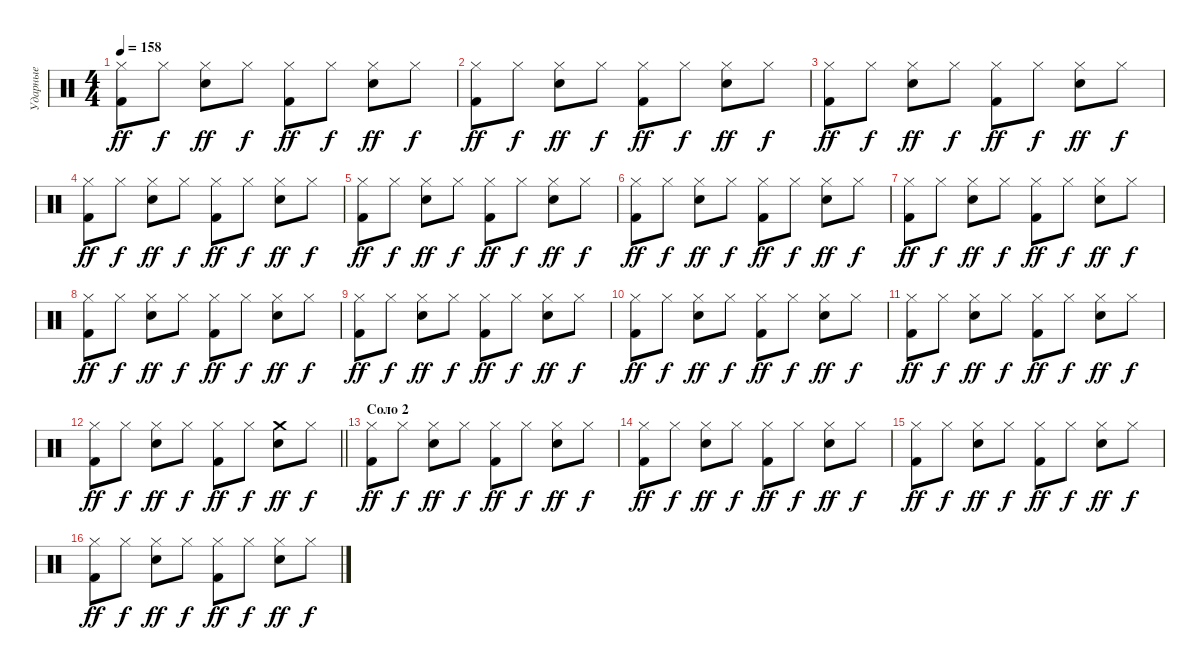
\track ("Ударные" "Ударные") {instrument percussion}
\staff {score}
\articulation defaults
\ts (4 4)
\tempo 158
\clef neutral
\ks c
("Hi-Hat (closed)" "Kick (hit) 2").8{dy ff} "Hi-Hat (closed)".8{dy f} ("Hi-Hat (closed)" "Electric Snare (hit)").8{dy ff} "Hi-Hat (closed)".8{dy f} ("Hi-Hat (closed)" "Kick (hit) 2").8{dy ff} "Hi-Hat (closed)".8{dy f} ("Hi-Hat (closed)" "Electric Snare (hit)").8{dy ff} "Hi-Hat (closed)".8{dy f} |
("Hi-Hat (closed)" "Kick (hit) 2").8{dy ff} "Hi-Hat (closed)".8{dy f} ("Hi-Hat (closed)" "Electric Snare (hit)").8{dy ff} "Hi-Hat (closed)".8{dy f} ("Hi-Hat (closed)" "Kick (hit) 2").8{dy ff} "Hi-Hat (closed)".8{dy f} ("Hi-Hat (closed)" "Electric Snare (hit)").8{dy ff} "Hi-Hat (closed)".8{dy f} |
("Hi-Hat (closed)" "Kick (hit) 2").8{dy ff} "Hi-Hat (closed)".8{dy f} ("Hi-Hat (closed)" "Electric Snare (hit)").8{dy ff} "Hi-Hat (closed)".8{dy f} ("Hi-Hat (closed)" "Kick (hit) 2").8{dy ff} "Hi-Hat (closed)".8{dy f} ("Hi-Hat (closed)" "Electric Snare (hit)").8{dy ff} "Hi-Hat (closed)".8{dy f} |
("Hi-Hat (closed)" "Kick (hit) 2").8{dy ff} "Hi-Hat (closed)".8{dy f} ("Hi-Hat (closed)" "Electric Snare (hit)").8{dy ff} "Hi-Hat (closed)".8{dy f} ("Hi-Hat (closed)" "Kick (hit) 2").8{dy ff} "Hi-Hat (closed)".8{dy f} ("Hi-Hat (closed)" "Electric Snare (hit)").8{dy ff} "Hi-Hat (closed)".8{dy f} |
("Hi-Hat (closed)" "Kick (hit) 2").8{dy ff} "Hi-Hat (closed)".8{dy f} ("Hi-Hat (closed)" "Electric Snare (hit)").8{dy ff} "Hi-Hat (closed)".8{dy f} ("Hi-Hat (closed)" "Kick (hit) 2").8{dy ff} "Hi-Hat (closed)".8{dy f} ("Hi-Hat (closed)" "Electric Snare (hit)").8{dy ff} "Hi-Hat (closed)".8{dy f} |
("Hi-Hat (closed)" "Kick (hit) 2").8{dy ff} "Hi-Hat (closed)".8{dy f} ("Hi-Hat (closed)" "Electric Snare (hit)").8{dy ff} "Hi-Hat (closed)".8{dy f} ("Hi-Hat (closed)" "Kick (hit) 2").8{dy ff} "Hi-Hat (closed)".8{dy f} ("Hi-Hat (closed)" "Electric Snare (hit)").8{dy ff} "Hi-Hat (closed)".8{dy f} |
("Hi-Hat (closed)" "Kick (hit) 2").8{dy ff} "Hi-Hat (closed)".8{dy f} ("Hi-Hat (closed)" "Electric Snare (hit)").8{dy ff} "Hi-Hat (closed)".8{dy f} ("Hi-Hat (closed)" "Kick (hit) 2").8{dy ff} "Hi-Hat (closed)".8{dy f} ("Hi-Hat (closed)" "Electric Snare (hit)").8{dy ff} "Hi-Hat (closed)".8{dy f} |
("Hi-Hat (closed)" "Kick (hit) 2").8{dy ff} "Hi-Hat (closed)".8{dy f} ("Hi-Hat (closed)" "Electric Snare (hit)").8{dy ff} "Hi-Hat (closed)".8{dy f} ("Hi-Hat (closed)" "Kick (hit) 2").8{dy ff} "Hi-Hat (closed)".8{dy f} ("Hi-Hat (closed)" "Electric Snare (hit)").8{dy ff} "Hi-Hat (closed)".8{dy f} |
("Hi-Hat (closed)" "Kick (hit) 2").8{dy ff} "Hi-Hat (closed)".8{dy f} ("Hi-Hat (closed)" "Electric Snare (hit)").8{dy ff} "Hi-Hat (closed)".8{dy f} ("Hi-Hat (closed)" "Kick (hit) 2").8{dy ff} "Hi-Hat (closed)".8{dy f} ("Hi-Hat (closed)" "Electric Snare (hit)").8{dy ff} "Hi-Hat (closed)".8{dy f} |
("Hi-Hat (closed)" "Kick (hit) 2").8{dy ff} "Hi-Hat (closed)".8{dy f} ("Hi-Hat (closed)" "Electric Snare (hit)").8{dy ff} "Hi-Hat (closed)".8{dy f} ("Hi-Hat (closed)" "Kick (hit) 2").8{dy ff} "Hi-Hat (closed)".8{dy f} ("Hi-Hat (closed)" "Electric Snare (hit)").8{dy ff} "Hi-Hat (closed)".8{dy f} |
("Hi-Hat (closed)" "Kick (hit) 2").8{dy ff} "Hi-Hat (closed)".8{dy f} ("Hi-Hat (closed)" "Electric Snare (hit)").8{dy ff} "Hi-Hat (closed)".8{dy f} ("Hi-Hat (closed)" "Kick (hit) 2").8{dy ff} "Hi-Hat (closed)".8{dy f} ("Hi-Hat (closed)" "Electric Snare (hit)").8{dy ff} "Hi-Hat (closed)".8{dy f} |
\barLineRight lightlight
("Hi-Hat (closed)" "Kick (hit) 2").8{dy ff} "Hi-Hat (closed)".8{dy f} ("Hi-Hat (closed)" "Electric Snare (hit)").8{dy ff} "Hi-Hat (closed)".8{dy f} ("Hi-Hat (closed)" "Kick (hit) 2").8{dy ff} "Hi-Hat (closed)".8{dy f} ("Crash medium (hit)" "Snare (hit) 2").8{dy ff} "Hi-Hat (closed)".8{dy f} |
\section ("" "Соло 2")
("Hi-Hat (closed)" "Kick (hit) 2").8{dy ff} "Hi-Hat (closed)".8{dy f} ("Hi-Hat (closed)" "Electric Snare (hit)").8{dy ff} "Hi-Hat (closed)".8{dy f} ("Hi-Hat (closed)" "Kick (hit) 2").8{dy ff} "Hi-Hat (closed)".8{dy f} ("Hi-Hat (closed)" "Electric Snare (hit)").8{dy ff} "Hi-Hat (closed)".8{dy f} |
("Hi-Hat (closed)" "Kick (hit) 2").8{dy ff} "Hi-Hat (closed)".8{dy f} ("Hi-Hat (closed)" "Electric Snare (hit)").8{dy ff} "Hi-Hat (closed)".8{dy f} ("Hi-Hat (closed)" "Kick (hit) 2").8{dy ff} "Hi-Hat (closed)".8{dy f} ("Hi-Hat (closed)" "Electric Snare (hit)").8{dy ff} "Hi-Hat (closed)".8{dy f} |
("Hi-Hat (closed)" "Kick (hit) 2").8{dy ff} "Hi-Hat (closed)".8{dy f} ("Hi-Hat (closed)" "Electric Snare (hit)").8{dy ff} "Hi-Hat (closed)".8{dy f} ("Hi-Hat (closed)" "Kick (hit) 2").8{dy ff} "Hi-Hat (closed)".8{dy f} ("Hi-Hat (closed)" "Electric Snare (hit)").8{dy ff} "Hi-Hat (closed)".8{dy f} |
("Hi-Hat (closed)" "Kick (hit) 2").8{dy ff} "Hi-Hat (closed)".8{dy f} ("Hi-Hat (closed)" "Electric Snare (hit)").8{dy ff} "Hi-Hat (closed)".8{dy f} ("Hi-Hat (closed)" "Kick (hit) 2").8{dy ff} "Hi-Hat (closed)".8{dy f} ("Hi-Hat (closed)" "Electric Snare (hit)").8{dy ff} "Hi-Hat (closed)".8{dy f}
